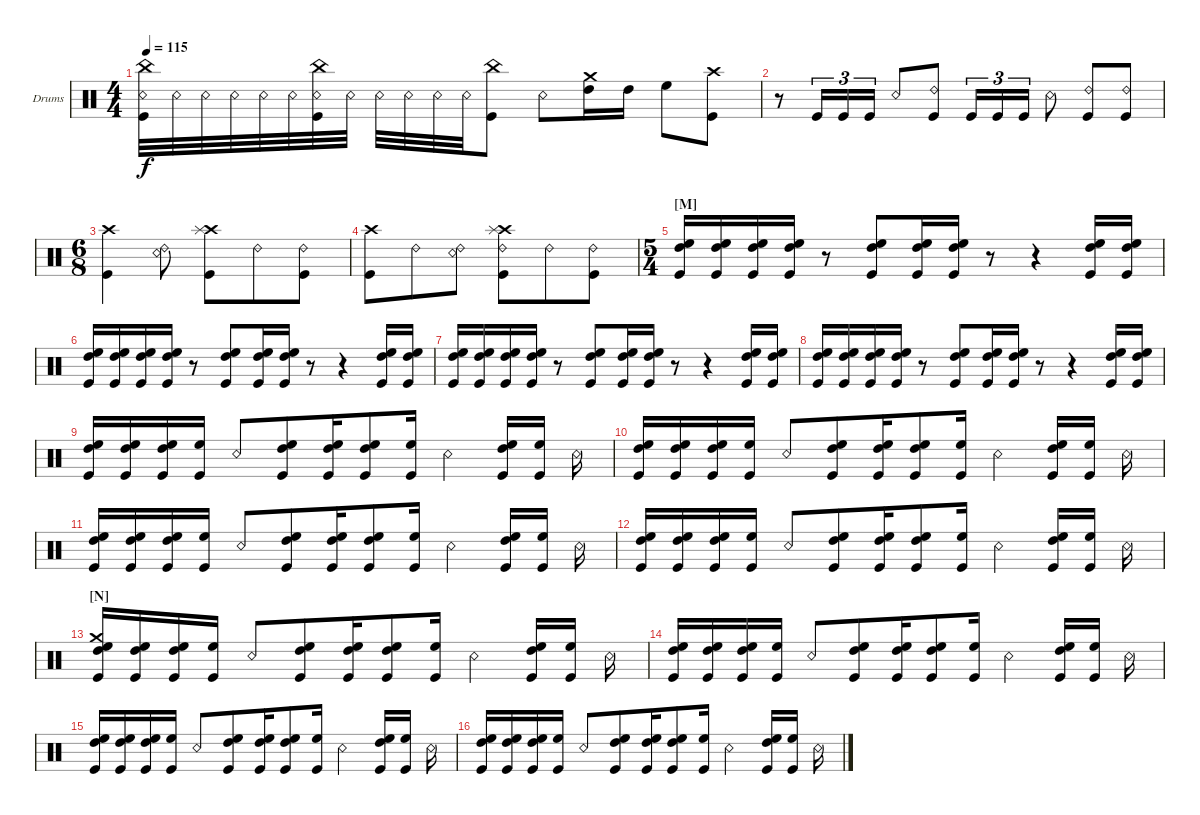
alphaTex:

\defaultSystemsLayout 4
\bracketExtendMode groupsimilarinstruments
\firstSystemTrackNameOrientation horizontal
\otherSystemsTrackNameOrientation horizontal
\track ("Drumkit" "Drums") {instrument percussion}
\staff {score}
\articulation defaults
\ts (4 4)
\tempo 115
\clef neutral
\scale
0.390805
\ks c
("Kick (hit)" "Snare (rim shot)" "China (hit)").32{dy f} "Snare (rim shot)".32 "Snare (rim shot)".32 "Snare (rim shot)".32 "Snare (rim shot)".32 "Snare (rim shot)".32 ("Snare (rim shot)" "China (hit)" "Kick (hit)").32 "Snare (rim shot)".32 "Snare (rim shot)".32 "Snare (rim shot)".32 "Snare (rim shot)".32 "Snare (rim shot)".32 ("China (hit)" "Kick (hit)").8 "Snare (rim shot)".8 ("High Tom (hit)" "Crash medium (hit)").16 "High Tom (hit)".16 "High Floor Tom (hit)".8 ("Crash high (hit)" "Kick (hit)").8 |
\scale
0.263889 r.8 "Kick (hit)".16{tu (3 2)} "Kick (hit)".16{tu (3 2)} "Kick (hit)".16{tu (3 2)} "Snare (rim shot)".8 ("Ride (bell) 2" "Kick (hit)").8 "Kick (hit)".16{tu (3 2)} "Kick (hit)".16{tu (3 2)} "Kick (hit)".16{tu (3 2)} "Snare (rim shot)".8 ("Ride (bell) 2" "Kick (hit)").8 ("Ride (bell) 2" "Kick (hit)").8 |
\ts (6 8)
\scale
0.472222 ("Kick (hit)" "Crash high (hit)").4 ("Ride (bell) 2" "Snare (rim shot)").8 ("Crash high (hit)" "Splash (hit)" "Kick (hit)").8 "Ride (bell) 2".8 ("Ride (bell) 2" "Kick (hit)").8 |
\scale
0.263889 ("Kick (hit)" "Crash high (hit)").8 "Ride (bell) 2".8 ("Ride (bell) 2" "Snare (rim shot)").8 ("Crash high (hit)" "Splash (hit)" "Kick (hit)" "Ride (bell) 2").8 "Ride (bell) 2".8 ("Ride (bell) 2" "Kick (hit)").8 |
\ts (5 4)
\beaming (8 2 4 3 1)
\section ("M" "")
\scale
0.472222 ("Kick (hit)" "High Floor Tom (hit)" "High Tom (hit)").16 ("Kick (hit)" "High Floor Tom (hit)" "High Tom (hit)").16 ("Kick (hit)" "High Floor Tom (hit)" "High Tom (hit)").16 ("Kick (hit)" "High Floor Tom (hit)" "High Tom (hit)").16 r.8 ("Kick (hit)" "High Floor Tom (hit)" "High Tom (hit)").8 ("Kick (hit)" "High Floor Tom (hit)" "High Tom (hit)").16 ("Kick (hit)" "High Floor Tom (hit)" "High Tom (hit)").16 r.8 r.4 ("Kick (hit)" "High Floor Tom (hit)" "High Tom (hit)").16 ("Kick (hit)" "High Floor Tom (hit)" "High Tom (hit)").16 |
\scale
0.263889 ("Kick (hit)" "High Floor Tom (hit)" "High Tom (hit)").16 ("Kick (hit)" "High Floor Tom (hit)" "High Tom (hit)").16 ("Kick (hit)" "High Floor Tom (hit)" "High Tom (hit)").16 ("Kick (hit)" "High Floor Tom (hit)" "High Tom (hit)").16 r.8 ("Kick (hit)" "High Floor Tom (hit)" "High Tom (hit)").8 ("Kick (hit)" "High Floor Tom (hit)" "High Tom (hit)").16 ("Kick (hit)" "High Floor Tom (hit)" "High Tom (hit)").16 r.8 r.4 ("Kick (hit)" "High Floor Tom (hit)" "High Tom (hit)").16 ("Kick (hit)" "High Floor Tom (hit)" "High Tom (hit)").16 |
\scale
0.263889 ("Kick (hit)" "High Floor Tom (hit)" "High Tom (hit)").16 ("Kick (hit)" "High Floor Tom (hit)" "High Tom (hit)").16 ("Kick (hit)" "High Floor Tom (hit)" "High Tom (hit)").16 ("Kick (hit)" "High Floor Tom (hit)" "High Tom (hit)").16 r.8 ("Kick (hit)" "High Floor Tom (hit)" "High Tom (hit)").8 ("Kick (hit)" "High Floor Tom (hit)" "High Tom (hit)").16 ("Kick (hit)" "High Floor Tom (hit)" "High Tom (hit)").16 r.8 r.4 ("Kick (hit)" "High Floor Tom (hit)" "High Tom (hit)").16 ("Kick (hit)" "High Floor Tom (hit)" "High Tom (hit)").16 |
\scale
0.333333 ("Kick (hit)" "High Floor Tom (hit)" "High Tom (hit)").16 ("Kick (hit)" "High Floor Tom (hit)" "High Tom (hit)").16 ("Kick (hit)" "High Floor Tom (hit)" "High Tom (hit)").16 ("Kick (hit)" "High Floor Tom (hit)" "High Tom (hit)").16 r.8 ("Kick (hit)" "High Floor Tom (hit)" "High Tom (hit)").8 ("Kick (hit)" "High Floor Tom (hit)" "High Tom (hit)").16 ("Kick (hit)" "High Floor Tom (hit)" "High Tom (hit)").16 r.8 r.4 ("Kick (hit)" "High Floor Tom (hit)" "High Tom (hit)").16 ("Kick (hit)" "High Floor Tom (hit)" "High Tom (hit)").16 |
\scale
0.333333 ("Kick (hit)" "High Floor Tom (hit)" "High Tom (hit)").16 ("Kick (hit)" "High Floor Tom (hit)" "High Tom (hit)").16 ("Kick (hit)" "High Floor Tom (hit)" "High Tom (hit)").16 ("Kick (hit)" "High Floor Tom (hit)").16 "Snare (rim shot)".8 ("Kick (hit)" "High Floor Tom (hit)" "High Tom (hit)").8 ("Kick (hit)" "High Floor Tom (hit)" "High Tom (hit)").16 ("Kick (hit)" "High Floor Tom (hit)" "High Tom (hit)").8 ("Kick (hit)" "High Floor Tom (hit)").16 "Snare (rim shot)".4 ("Kick (hit)" "High Floor Tom (hit)" "High Tom (hit)").16 ("Kick (hit)" "High Floor Tom (hit)").16 "Snare (rim shot)".16 |
\scale
0.333333 ("Kick (hit)" "High Floor Tom (hit)" "High Tom (hit)").16 ("Kick (hit)" "High Floor Tom (hit)" "High Tom (hit)").16 ("Kick (hit)" "High Floor Tom (hit)" "High Tom (hit)").16 ("Kick (hit)" "High Floor Tom (hit)").16 "Snare (rim shot)".8 ("Kick (hit)" "High Floor Tom (hit)" "High Tom (hit)").8 ("Kick (hit)" "High Floor Tom (hit)" "High Tom (hit)").16 ("Kick (hit)" "High Floor Tom (hit)" "High Tom (hit)").8 ("Kick (hit)" "High Floor Tom (hit)").16 "Snare (rim shot)".4 ("Kick (hit)" "High Floor Tom (hit)" "High Tom (hit)").16 ("Kick (hit)" "High Floor Tom (hit)").16 "Snare (rim shot)".16 |
\scale
0.333333 ("Kick (hit)" "High Floor Tom (hit)" "High Tom (hit)").16 ("Kick (hit)" "High Floor Tom (hit)" "High Tom (hit)").16 ("Kick (hit)" "High Floor Tom (hit)" "High Tom (hit)").16 ("Kick (hit)" "High Floor Tom (hit)").16 "Snare (rim shot)".8 ("Kick (hit)" "High Floor Tom (hit)" "High Tom (hit)").8 ("Kick (hit)" "High Floor Tom (hit)" "High Tom (hit)").16 ("Kick (hit)" "High Floor Tom (hit)" "High Tom (hit)").8 ("Kick (hit)" "High Floor Tom (hit)").16 "Snare (rim shot)".4 ("Kick (hit)" "High Floor Tom (hit)" "High Tom (hit)").16 ("Kick (hit)" "High Floor Tom (hit)").16 "Snare (rim shot)".16 |
\scale
0.333333 ("Kick (hit)" "High Floor Tom (hit)" "High Tom (hit)").16 ("Kick (hit)" "High Floor Tom (hit)" "High Tom (hit)").16 ("Kick (hit)" "High Floor Tom (hit)" "High Tom (hit)").16 ("Kick (hit)" "High Floor Tom (hit)").16 "Snare (rim shot)".8 ("Kick (hit)" "High Floor Tom (hit)" "High Tom (hit)").8 ("Kick (hit)" "High Floor Tom (hit)" "High Tom (hit)").16 ("Kick (hit)" "High Floor Tom (hit)" "High Tom (hit)").8 ("Kick (hit)" "High Floor Tom (hit)").16 "Snare (rim shot)".4 ("Kick (hit)" "High Floor Tom (hit)" "High Tom (hit)").16 ("Kick (hit)" "High Floor Tom (hit)").16 "Snare (rim shot)".16 |
\section ("N" "")
\scale
0.333333 ("Kick (hit)" "High Floor Tom (hit)" "High Tom (hit)" "Crash medium (hit)").16 ("Kick (hit)" "High Floor Tom (hit)" "High Tom (hit)").16 ("Kick (hit)" "High Floor Tom (hit)" "High Tom (hit)").16 ("Kick (hit)" "High Floor Tom (hit)").16 "Snare (rim shot)".8 ("Kick (hit)" "High Floor Tom (hit)" "High Tom (hit)").8 ("Kick (hit)" "High Floor Tom (hit)" "High Tom (hit)").16 ("Kick (hit)" "High Floor Tom (hit)" "High Tom (hit)").8 ("Kick (hit)" "High Floor Tom (hit)").16 "Snare (rim shot)".4 ("Kick (hit)" "High Floor Tom (hit)" "High Tom (hit)").16 ("Kick (hit)" "High Floor Tom (hit)").16 "Snare (rim shot)".16 |
\scale
0.333333 ("Kick (hit)" "High Floor Tom (hit)" "High Tom (hit)").16 ("Kick (hit)" "High Floor Tom (hit)" "High Tom (hit)").16 ("Kick (hit)" "High Floor Tom (hit)" "High Tom (hit)").16 ("Kick (hit)" "High Floor Tom (hit)").16 "Snare (rim shot)".8 ("Kick (hit)" "High Floor Tom (hit)" "High Tom (hit)").8 ("Kick (hit)" "High Floor Tom (hit)" "High Tom (hit)").16 ("Kick (hit)" "High Floor Tom (hit)" "High Tom (hit)").8 ("Kick (hit)" "High Floor Tom (hit)").16 "Snare (rim shot)".4 ("Kick (hit)" "High Floor Tom (hit)" "High Tom (hit)").16 ("Kick (hit)" "High Floor Tom (hit)").16 "Snare (rim shot)".16 |
\scale
0.333333 ("Kick (hit)" "High Floor Tom (hit)" "High Tom (hit)").16 ("Kick (hit)" "High Floor Tom (hit)" "High Tom (hit)").16 ("Kick (hit)" "High Floor Tom (hit)" "High Tom (hit)").16 ("Kick (hit)" "High Floor Tom (hit)").16 "Snare (rim shot)".8 ("Kick (hit)" "High Floor Tom (hit)" "High Tom (hit)").8 ("Kick (hit)" "High Floor Tom (hit)" "High Tom (hit)").16 ("Kick (hit)" "High Floor Tom (hit)" "High Tom (hit)").8 ("Kick (hit)" "High Floor Tom (hit)").16 "Snare (rim shot)".4 ("Kick (hit)" "High Floor Tom (hit)" "High Tom (hit)").16 ("Kick (hit)" "High Floor Tom (hit)").16 "Snare (rim shot)".16 |
\scale
0.333333 ("Kick (hit)" "High Floor Tom (hit)" "High Tom (hit)").16 ("Kick (hit)" "High Floor Tom (hit)" "High Tom (hit)").16 ("Kick (hit)" "High Floor Tom (hit)" "High Tom (hit)").16 ("Kick (hit)" "High Floor Tom (hit)").16 "Snare (rim shot)".8 ("Kick (hit)" "High Floor Tom (hit)" "High Tom (hit)").8 ("Kick (hit)" "High Floor Tom (hit)" "High Tom (hit)").16 ("Kick (hit)" "High Floor Tom (hit)" "High Tom (hit)").8 ("Kick (hit)" "High Floor Tom (hit)").16 "Snare (rim shot)".4 ("Kick (hit)" "High Floor Tom (hit)" "High Tom (hit)").16 ("Kick (hit)" "High Floor Tom (hit)").16 "Snare (rim shot)".16
